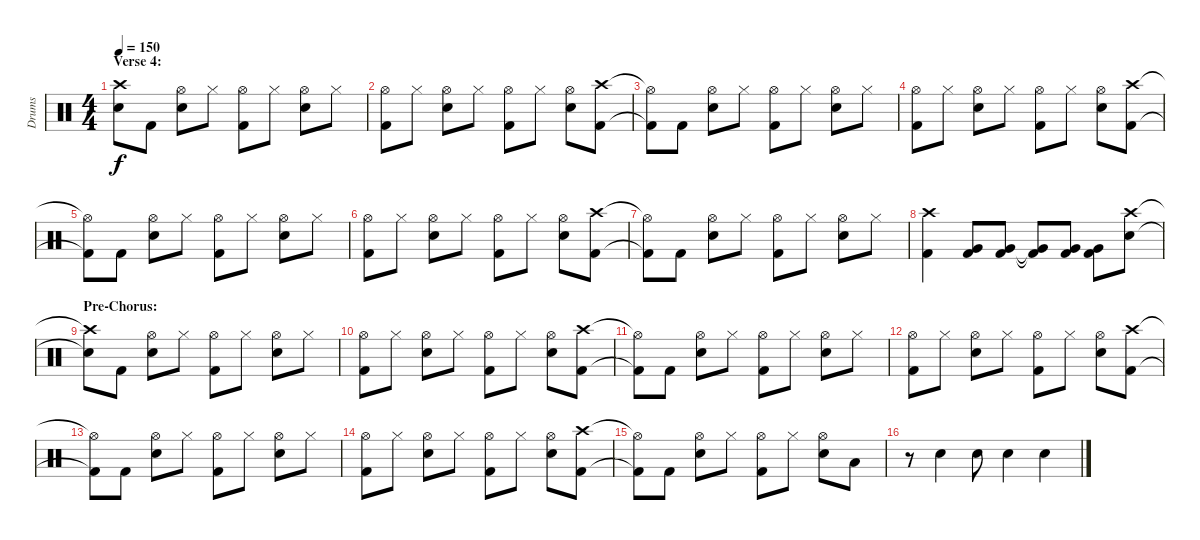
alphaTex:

\track ("Drums" "Drums") {instrument percussion}
\staff {score}
\articulation defaults
\ts (4 4)
\section ("" "Verse 4:")
\tempo 150
\clef neutral
\ks c
("Crash high (hit)"{t} "Snare (hit)"{t}).8{dy f} "Kick (hit) 2".8 ("Hi-Hat (open)" "Snare (hit) 2").8 "Hi-Hat (closed)".8 ("Hi-Hat (open)" "Kick (hit) 2").8 "Hi-Hat (closed)".8 ("Hi-Hat (open)" "Snare (hit) 2").8 "Hi-Hat (closed)".8 |
("Hi-Hat (open)" "Kick (hit) 2").8 "Hi-Hat (closed)".8 ("Hi-Hat (open)" "Snare (hit) 2").8 "Hi-Hat (closed)".8 ("Hi-Hat (open)" "Kick (hit) 2").8 "Hi-Hat (closed)".8 ("Hi-Hat (open)" "Snare (hit) 2").8 ("Crash high (hit)" "Kick (hit) 2").8 |
("Hi-Hat (open)"{t} "Kick (hit) 2"{t}).8 "Kick (hit) 2".8 ("Hi-Hat (open)" "Snare (hit) 2").8 "Hi-Hat (closed)".8 ("Hi-Hat (open)" "Kick (hit) 2").8 "Hi-Hat (closed)".8 ("Hi-Hat (open)" "Snare (hit) 2").8 "Hi-Hat (closed)".8 |
("Hi-Hat (open)" "Kick (hit) 2").8 "Hi-Hat (closed)".8 ("Hi-Hat (open)" "Snare (hit) 2").8 "Hi-Hat (closed)".8 ("Hi-Hat (open)" "Kick (hit) 2").8 "Hi-Hat (closed)".8 ("Hi-Hat (open)" "Snare (hit) 2").8 ("Crash high (hit)" "Kick (hit) 2").8 |
("Hi-Hat (open)"{t} "Kick (hit) 2"{t}).8 "Kick (hit) 2".8 ("Hi-Hat (open)" "Snare (hit) 2").8 "Hi-Hat (closed)".8 ("Hi-Hat (open)" "Kick (hit) 2").8 "Hi-Hat (closed)".8 ("Hi-Hat (open)" "Snare (hit) 2").8 "Hi-Hat (closed)".8 |
("Hi-Hat (open)" "Kick (hit) 2").8 "Hi-Hat (closed)".8 ("Hi-Hat (open)" "Snare (hit) 2").8 "Hi-Hat (closed)".8 ("Hi-Hat (open)" "Kick (hit) 2").8 "Hi-Hat (closed)".8 ("Hi-Hat (open)" "Snare (hit) 2").8 ("Crash high (hit)" "Kick (hit) 2").8 |
("Hi-Hat (open)"{t} "Kick (hit) 2"{t}).8 "Kick (hit) 2".8 ("Hi-Hat (open)" "Snare (hit) 2").8 "Hi-Hat (closed)".8 ("Hi-Hat (open)" "Kick (hit) 2").8 "Hi-Hat (closed)".8 ("Hi-Hat (open)" "Snare (hit) 2").8 "Hi-Hat (closed)".8 |
("Crash high (hit)" "Kick (hit) 2").4 ("Very Low Tom (hit)" "Kick (hit) 2").8 ("Very Low Tom (hit)" "Kick (hit) 2").8 ("Very Low Tom (hit)"{t} "Kick (hit) 2"{t}).8 ("Very Low Tom (hit)" "Kick (hit) 2").8 ("Very Low Tom (hit)" "Kick (hit) 2").8 ("Crash high (hit)" "Snare (hit) 2").8 |
\section ("" "Pre-Chorus:")
("Crash high (hit)"{t} "Snare (hit)"{t}).8 "Kick (hit) 2".8 ("Hi-Hat (open)" "Snare (hit) 2").8 "Hi-Hat (closed)".8 ("Hi-Hat (open)" "Kick (hit) 2").8 "Hi-Hat (closed)".8 ("Hi-Hat (open)" "Snare (hit) 2").8 "Hi-Hat (closed)".8 |
("Hi-Hat (open)" "Kick (hit) 2").8 "Hi-Hat (closed)".8 ("Hi-Hat (open)" "Snare (hit) 2").8 "Hi-Hat (closed)".8 ("Hi-Hat (open)" "Kick (hit) 2").8 "Hi-Hat (closed)".8 ("Hi-Hat (open)" "Snare (hit) 2").8 ("Crash high (hit)" "Kick (hit) 2").8 |
("Hi-Hat (open)"{t} "Kick (hit) 2"{t}).8 "Kick (hit) 2".8 ("Hi-Hat (open)" "Snare (hit) 2").8 "Hi-Hat (closed)".8 ("Hi-Hat (open)" "Kick (hit) 2").8 "Hi-Hat (closed)".8 ("Hi-Hat (open)" "Snare (hit) 2").8 "Hi-Hat (closed)".8 |
("Hi-Hat (open)" "Kick (hit) 2").8 "Hi-Hat (closed)".8 ("Hi-Hat (open)" "Snare (hit) 2").8 "Hi-Hat (closed)".8 ("Hi-Hat (open)" "Kick (hit) 2").8 "Hi-Hat (closed)".8 ("Hi-Hat (open)" "Snare (hit) 2").8 ("Crash high (hit)" "Kick (hit) 2").8 |
("Hi-Hat (open)"{t} "Kick (hit) 2"{t}).8 "Kick (hit) 2".8 ("Hi-Hat (open)" "Snare (hit) 2").8 "Hi-Hat (closed)".8 ("Hi-Hat (open)" "Kick (hit) 2").8 "Hi-Hat (closed)".8 ("Hi-Hat (open)" "Snare (hit) 2").8 "Hi-Hat (closed)".8 |
("Hi-Hat (open)" "Kick (hit) 2").8 "Hi-Hat (closed)".8 ("Hi-Hat (open)" "Snare (hit) 2").8 "Hi-Hat (closed)".8 ("Hi-Hat (open)" "Kick (hit) 2").8 "Hi-Hat (closed)".8 ("Hi-Hat (open)" "Snare (hit) 2").8 ("Crash high (hit)" "Kick (hit) 2").8 |
("Hi-Hat (open)"{t} "Kick (hit) 2"{t}).8 "Kick (hit) 2".8 ("Hi-Hat (open)" "Snare (hit) 2").8 "Hi-Hat (closed)".8 ("Hi-Hat (open)" "Kick (hit) 2").8 "Hi-Hat (closed)".8 ("Hi-Hat (open)" "Snare (hit) 2").8 "Low Tom (hit)".8 |
r.8 "Snare (hit) 2".4 "Snare (hit) 2".8 "Snare (hit) 2".4 "Snare (hit) 2".4
